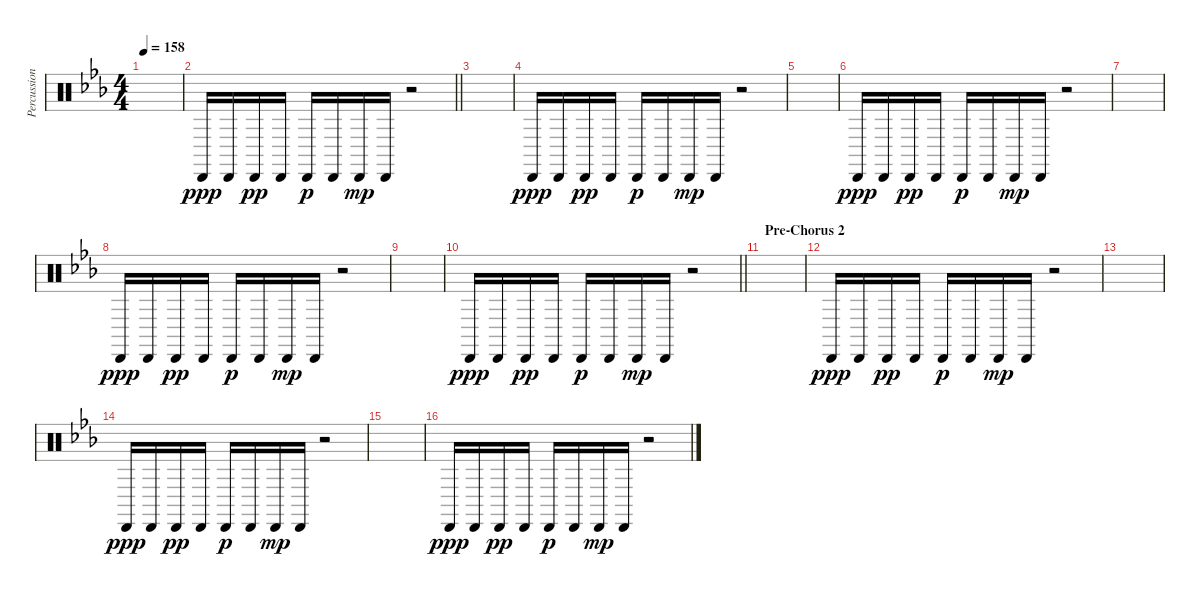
\track ("Percussion" "Percussion") {instrument percussion}
\staff {score}
\articulation defaults
\ts (4 4)
\tempo 158
\clef neutral
\ks eb
|
\barLineRight lightlight "Cabasa (hit)".16{dy ppp} "Cabasa (hit)".16 "Cabasa (hit)".16{dy pp} "Cabasa (hit)".16 "Cabasa (hit)".16{dy p} "Cabasa (hit)".16 "Cabasa (hit)".16{dy mp} "Cabasa (hit)".16
r.2 |
|
"Cabasa (hit)".16{dy ppp} "Cabasa (hit)".16 "Cabasa (hit)".16{dy pp} "Cabasa (hit)".16 "Cabasa (hit)".16{dy p} "Cabasa (hit)".16 "Cabasa (hit)".16{dy mp} "Cabasa (hit)".16 r.2 |
|
"Cabasa (hit)".16{dy ppp} "Cabasa (hit)".16 "Cabasa (hit)".16{dy pp} "Cabasa (hit)".16 "Cabasa (hit)".16{dy p} "Cabasa (hit)".16 "Cabasa (hit)".16{dy mp} "Cabasa (hit)".16 r.2 |
|
"Cabasa (hit)".16{dy ppp} "Cabasa (hit)".16 "Cabasa (hit)".16{dy pp} "Cabasa (hit)".16 "Cabasa (hit)".16{dy p} "Cabasa (hit)".16 "Cabasa (hit)".16{dy mp} "Cabasa (hit)".16 r.2 |
|
\barLineRight lightlight "Cabasa (hit)".16{dy ppp} "Cabasa (hit)".16 "Cabasa (hit)".16{dy pp} "Cabasa (hit)".16 "Cabasa (hit)".16{dy p} "Cabasa (hit)".16 "Cabasa (hit)".16{dy mp} "Cabasa (hit)".16
r.2 |
\section ("" "Pre-Chorus 2")
|
"Cabasa (hit)".16{dy ppp} "Cabasa (hit)".16 "Cabasa (hit)".16{dy pp} "Cabasa (hit)".16 "Cabasa (hit)".16{dy p} "Cabasa (hit)".16 "Cabasa (hit)".16{dy mp} "Cabasa (hit)".16 r.2 |
|
"Cabasa (hit)".16{dy ppp} "Cabasa (hit)".16 "Cabasa (hit)".16{dy pp} "Cabasa (hit)".16 "Cabasa (hit)".16{dy p} "Cabasa (hit)".16 "Cabasa (hit)".16{dy mp} "Cabasa (hit)".16 r.2 |
|
"Cabasa (hit)".16{dy ppp} "Cabasa (hit)".16 "Cabasa (hit)".16{dy pp} "Cabasa (hit)".16 "Cabasa (hit)".16{dy p} "Cabasa (hit)".16 "Cabasa (hit)".16{dy mp} "Cabasa (hit)".16 r.2
